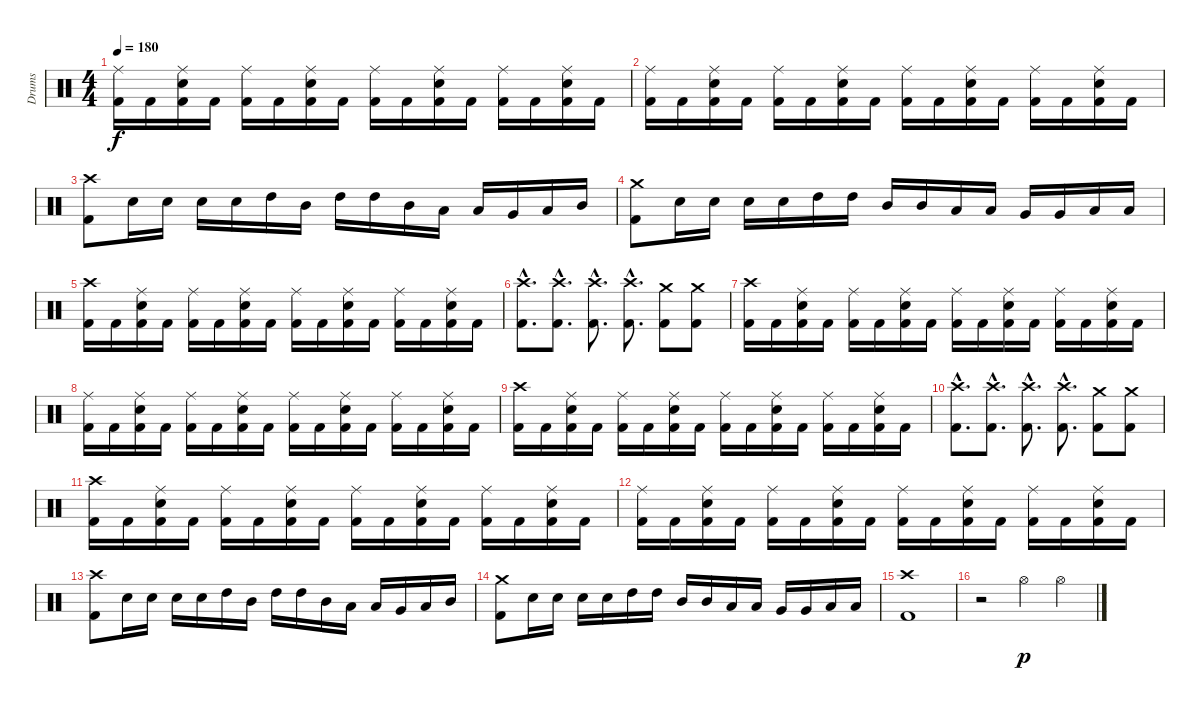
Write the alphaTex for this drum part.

\track ("Drums" "Drums") {instrument percussion}
\staff {score}
\articulation defaults
\ts (4 4)
\tempo 180
\clef neutral
\ks c
("Ride (middle)" "Kick (hit) 2").16{dy f} "Kick (hit) 2".16 ("Ride (middle)" "Electric Snare (hit)" "Kick (hit) 2").16 "Kick (hit) 2".16 ("Ride (middle)" "Kick (hit) 2").16 "Kick (hit) 2".16 ("Ride (middle)" "Electric Snare (hit)" "Kick (hit) 2").16 "Kick (hit) 2".16 ("Ride (middle)" "Kick (hit) 2").16 "Kick (hit) 2".16 ("Ride (middle)" "Electric Snare (hit)" "Kick (hit) 2").16 "Kick (hit) 2".16 ("Ride (middle)" "Kick (hit) 2").16 "Kick (hit) 2".16 ("Ride (middle)" "Electric Snare (hit)" "Kick (hit) 2").16 "Kick (hit) 2".16 |
("Ride (middle)" "Kick (hit) 2").16 "Kick (hit) 2".16 ("Ride (middle)" "Electric Snare (hit)" "Kick (hit) 2").16 "Kick (hit) 2".16 ("Ride (middle)" "Kick (hit) 2").16 "Kick (hit) 2".16 ("Ride (middle)" "Electric Snare (hit)" "Kick (hit) 2").16 "Kick (hit) 2".16 ("Ride (middle)" "Kick (hit) 2").16 "Kick (hit) 2".16 ("Ride (middle)" "Electric Snare (hit)" "Kick (hit) 2").16 "Kick (hit) 2".16 ("Ride (middle)" "Kick (hit) 2").16 "Kick (hit) 2".16 ("Ride (middle)" "Electric Snare (hit)" "Kick (hit) 2").16 "Kick (hit) 2".16 |
("Crash high (hit)" "Kick (hit) 2").8 "Electric Snare (hit)".16 "Electric Snare (hit)".16 "Electric Snare (hit)".16 "Electric Snare (hit)".16 "High Tom (hit)".16 "Mid Tom (hit)".16 "High Tom (hit)".16 "High Tom (hit)".16 "Mid Tom (hit)".16 "Low Tom (hit)".16 "Low Tom (hit)".16 "Very Low Tom (hit)".16 "Low Tom (hit)".16 "Mid Tom (hit)".16 |
("Crash medium (hit)" "Kick (hit) 2").8 "Electric Snare (hit)".16 "Electric Snare (hit)".16 "Electric Snare (hit)".16 "Electric Snare (hit)".16 "High Tom (hit)".16 "High Tom (hit)".16 "Mid Tom (hit)".16 "Mid Tom (hit)".16 "Low Tom (hit)".16 "Low Tom (hit)".16 "Very Low Tom (hit)".16 "Very Low Tom (hit)".16 "Low Floor Tom (hit)".16 "Low Floor Tom (hit)".16 |
("Crash high (hit)" "Kick (hit) 2").16 "Kick (hit) 2".16 ("Ride (middle)" "Electric Snare (hit)" "Kick (hit) 2").16 "Kick (hit) 2".16 ("Ride (middle)" "Kick (hit) 2").16 "Kick (hit) 2".16 ("Ride (middle)" "Electric Snare (hit)" "Kick (hit) 2").16 "Kick (hit) 2".16 ("Ride (middle)" "Kick (hit) 2").16 "Kick (hit) 2".16 ("Ride (middle)" "Electric Snare (hit)" "Kick (hit) 2").16 "Kick (hit) 2".16 ("Ride (middle)" "Kick (hit) 2").16 "Kick (hit) 2".16 ("Ride (middle)" "Electric Snare (hit)" "Kick (hit) 2").16 "Kick (hit) 2".16 |
("Crash high (hit)"{hac} "Kick (hit) 2"{hac}).8{d} ("Crash high (hit)"{hac} "Kick (hit) 2"{hac}).8{d} ("Crash high (hit)"{hac} "Kick (hit) 2"{hac}).8{d} ("Crash high (hit)"{hac} "Kick (hit) 2"{hac}).8{d} ("Crash medium (hit)" "Kick (hit) 2").8 ("Crash medium (hit)" "Kick (hit) 2").8 |
("Crash high (hit)" "Kick (hit) 2").16 "Kick (hit) 2".16 ("Ride (middle)" "Electric Snare (hit)" "Kick (hit) 2").16 "Kick (hit) 2".16 ("Ride (middle)" "Kick (hit) 2").16 "Kick (hit) 2".16 ("Ride (middle)" "Electric Snare (hit)" "Kick (hit) 2").16 "Kick (hit) 2".16 ("Ride (middle)" "Kick (hit) 2").16 "Kick (hit) 2".16 ("Ride (middle)" "Electric Snare (hit)" "Kick (hit) 2").16 "Kick (hit) 2".16 ("Ride (middle)" "Kick (hit) 2").16 "Kick (hit) 2".16 ("Ride (middle)" "Electric Snare (hit)" "Kick (hit) 2").16 "Kick (hit) 2".16 |
("Ride (middle)" "Kick (hit) 2").16 "Kick (hit) 2".16 ("Ride (middle)" "Electric Snare (hit)" "Kick (hit) 2").16 "Kick (hit) 2".16 ("Ride (middle)" "Kick (hit) 2").16 "Kick (hit) 2".16 ("Ride (middle)" "Electric Snare (hit)" "Kick (hit) 2").16 "Kick (hit) 2".16 ("Ride (middle)" "Kick (hit) 2").16 "Kick (hit) 2".16 ("Ride (middle)" "Electric Snare (hit)" "Kick (hit) 2").16 "Kick (hit) 2".16 ("Ride (middle)" "Kick (hit) 2").16 "Kick (hit) 2".16 ("Ride (middle)" "Electric Snare (hit)" "Kick (hit) 2").16 "Kick (hit) 2".16 |
("Crash high (hit)" "Kick (hit) 2").16 "Kick (hit) 2".16 ("Ride (middle)" "Electric Snare (hit)" "Kick (hit) 2").16 "Kick (hit) 2".16 ("Ride (middle)" "Kick (hit) 2").16 "Kick (hit) 2".16 ("Ride (middle)" "Electric Snare (hit)" "Kick (hit) 2").16 "Kick (hit) 2".16 ("Ride (middle)" "Kick (hit) 2").16 "Kick (hit) 2".16 ("Ride (middle)" "Electric Snare (hit)" "Kick (hit) 2").16 "Kick (hit) 2".16 ("Ride (middle)" "Kick (hit) 2").16 "Kick (hit) 2".16 ("Ride (middle)" "Electric Snare (hit)" "Kick (hit) 2").16 "Kick (hit) 2".16 |
("Crash high (hit)"{hac} "Kick (hit) 2"{hac}).8{d} ("Crash high (hit)"{hac} "Kick (hit) 2"{hac}).8{d} ("Crash high (hit)"{hac} "Kick (hit) 2"{hac}).8{d} ("Crash high (hit)"{hac} "Kick (hit) 2"{hac}).8{d} ("Crash medium (hit)" "Kick (hit) 2").8 ("Crash medium (hit)" "Kick (hit) 2").8 |
("Crash high (hit)" "Kick (hit) 2").16 "Kick (hit) 2".16 ("Ride (middle)" "Electric Snare (hit)" "Kick (hit) 2").16 "Kick (hit) 2".16 ("Ride (middle)" "Kick (hit) 2").16 "Kick (hit) 2".16 ("Ride (middle)" "Electric Snare (hit)" "Kick (hit) 2").16 "Kick (hit) 2".16 ("Ride (middle)" "Kick (hit) 2").16 "Kick (hit) 2".16 ("Ride (middle)" "Electric Snare (hit)" "Kick (hit) 2").16 "Kick (hit) 2".16 ("Ride (middle)" "Kick (hit) 2").16 "Kick (hit) 2".16 ("Ride (middle)" "Electric Snare (hit)" "Kick (hit) 2").16 "Kick (hit) 2".16 |
("Ride (middle)" "Kick (hit) 2").16 "Kick (hit) 2".16 ("Ride (middle)" "Electric Snare (hit)" "Kick (hit) 2").16 "Kick (hit) 2".16 ("Ride (middle)" "Kick (hit) 2").16 "Kick (hit) 2".16 ("Ride (middle)" "Electric Snare (hit)" "Kick (hit) 2").16 "Kick (hit) 2".16 ("Ride (middle)" "Kick (hit) 2").16 "Kick (hit) 2".16 ("Ride (middle)" "Electric Snare (hit)" "Kick (hit) 2").16 "Kick (hit) 2".16 ("Ride (middle)" "Kick (hit) 2").16 "Kick (hit) 2".16 ("Ride (middle)" "Electric Snare (hit)" "Kick (hit) 2").16 "Kick (hit) 2".16 |
("Crash high (hit)" "Kick (hit) 2").8 "Electric Snare (hit)".16 "Electric Snare (hit)".16 "Electric Snare (hit)".16 "Electric Snare (hit)".16 "High Tom (hit)".16 "Mid Tom (hit)".16 "High Tom (hit)".16 "High Tom (hit)".16 "Mid Tom (hit)".16 "Low Tom (hit)".16 "Low Tom (hit)".16 "Very Low Tom (hit)".16 "Low Tom (hit)".16 "Mid Tom (hit)".16 |
("Crash medium (hit)" "Kick (hit) 2").8 "Electric Snare (hit)".16 "Electric Snare (hit)".16 "Electric Snare (hit)".16 "Electric Snare (hit)".16 "High Tom (hit)".16 "High Tom (hit)".16 "Mid Tom (hit)".16 "Mid Tom (hit)".16 "Low Tom (hit)".16 "Low Tom (hit)".16 "Very Low Tom (hit)".16 "Very Low Tom (hit)".16 "Low Floor Tom (hit)".16 "Low Floor Tom (hit)".16 |
("Crash high (hit)" "Kick (hit) 2").1 |
r.2 "Hi-Hat (open)".4{dy p} "Hi-Hat (open)".4
